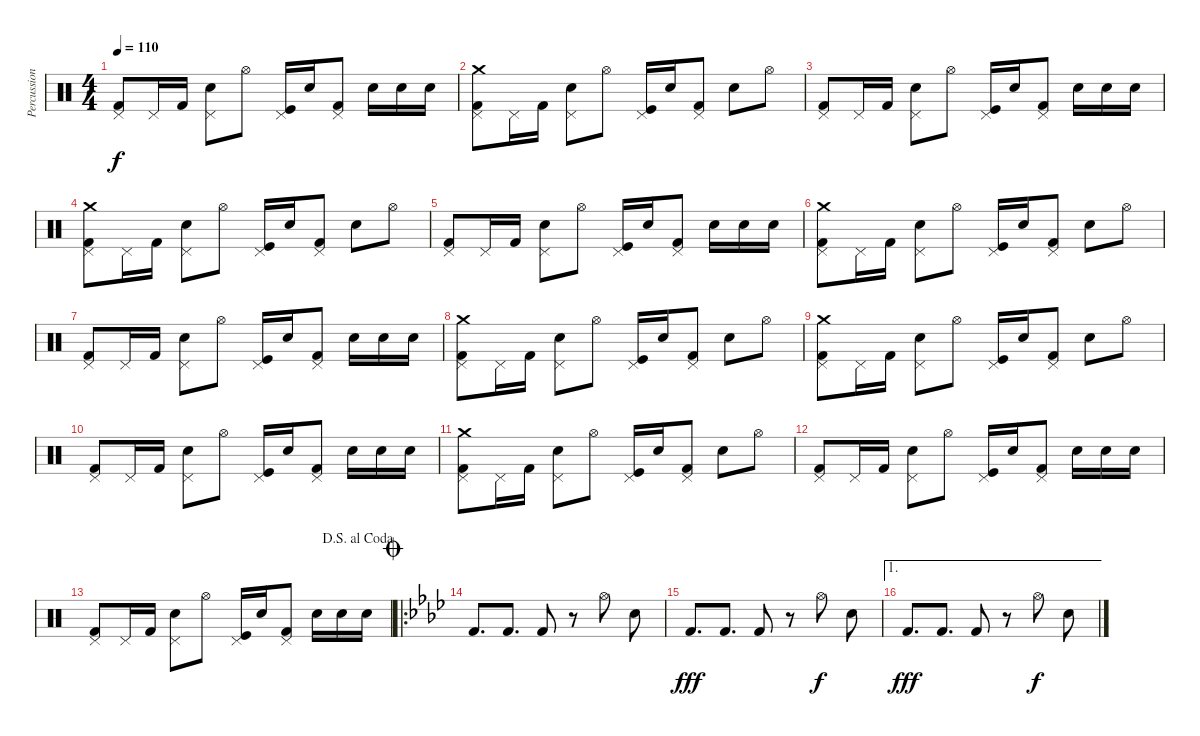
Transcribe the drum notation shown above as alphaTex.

\track ("Percussions" "Percussion") {instrument percussion}
\staff {score}
\articulation defaults
\ts (4 4)
\tempo 110
\clef neutral
\ks c
("Kick (hit) 2" "Pedal Hi-Hat (hit)").8{dy f} "Pedal Hi-Hat (hit)".16 "Kick (hit) 2".16 ("Electric Snare (hit)" "Pedal Hi-Hat (hit)").8 "Hi-Hat (open)".8 ("Kick (hit)" "Pedal Hi-Hat (hit)").16 "Electric Snare (hit)".16 ("Kick (hit) 2" "Pedal Hi-Hat (hit)").8 "Electric Snare (hit)".16 "Electric Snare (hit)".16 "Electric Snare (hit)".16 |
("Kick (hit) 2" "Pedal Hi-Hat (hit)" "Crash medium (hit)").8 "Pedal Hi-Hat (hit)".16 "Kick (hit) 2".16 ("Electric Snare (hit)" "Pedal Hi-Hat (hit)").8 "Hi-Hat (open)".8 ("Kick (hit)" "Pedal Hi-Hat (hit)").16 "Electric Snare (hit)".16 ("Kick (hit) 2" "Pedal Hi-Hat (hit)").8 "Electric Snare (hit)".8 "Hi-Hat (open)".8 |
("Kick (hit) 2" "Pedal Hi-Hat (hit)").8 "Pedal Hi-Hat (hit)".16 "Kick (hit) 2".16 ("Electric Snare (hit)" "Pedal Hi-Hat (hit)").8 "Hi-Hat (open)".8 ("Kick (hit)" "Pedal Hi-Hat (hit)").16 "Electric Snare (hit)".16 ("Kick (hit) 2" "Pedal Hi-Hat (hit)").8 "Electric Snare (hit)".16 "Electric Snare (hit)".16 "Electric Snare (hit)".16 |
("Kick (hit) 2" "Pedal Hi-Hat (hit)" "Crash medium (hit)").8 "Pedal Hi-Hat (hit)".16 "Kick (hit) 2".16 ("Electric Snare (hit)" "Pedal Hi-Hat (hit)").8 "Hi-Hat (open)".8 ("Kick (hit)" "Pedal Hi-Hat (hit)").16 "Electric Snare (hit)".16 ("Kick (hit) 2" "Pedal Hi-Hat (hit)").8 "Electric Snare (hit)".8 "Hi-Hat (open)".8 |
("Kick (hit) 2" "Pedal Hi-Hat (hit)").8 "Pedal Hi-Hat (hit)".16 "Kick (hit) 2".16 ("Electric Snare (hit)" "Pedal Hi-Hat (hit)").8 "Hi-Hat (open)".8 ("Kick (hit)" "Pedal Hi-Hat (hit)").16 "Electric Snare (hit)".16 ("Kick (hit) 2" "Pedal Hi-Hat (hit)").8 "Electric Snare (hit)".16 "Electric Snare (hit)".16 "Electric Snare (hit)".16 |
("Kick (hit) 2" "Pedal Hi-Hat (hit)" "Crash medium (hit)").8 "Pedal Hi-Hat (hit)".16 "Kick (hit) 2".16 ("Electric Snare (hit)" "Pedal Hi-Hat (hit)").8 "Hi-Hat (open)".8 ("Kick (hit)" "Pedal Hi-Hat (hit)").16 "Electric Snare (hit)".16 ("Kick (hit) 2" "Pedal Hi-Hat (hit)").8 "Electric Snare (hit)".8 "Hi-Hat (open)".8 |
("Kick (hit) 2" "Pedal Hi-Hat (hit)").8 "Pedal Hi-Hat (hit)".16 "Kick (hit) 2".16 ("Electric Snare (hit)" "Pedal Hi-Hat (hit)").8 "Hi-Hat (open)".8 ("Kick (hit)" "Pedal Hi-Hat (hit)").16 "Electric Snare (hit)".16 ("Kick (hit) 2" "Pedal Hi-Hat (hit)").8 "Electric Snare (hit)".16 "Electric Snare (hit)".16 "Electric Snare (hit)".16 |
("Kick (hit) 2" "Pedal Hi-Hat (hit)" "Crash medium (hit)").8 "Pedal Hi-Hat (hit)".16 "Kick (hit) 2".16 ("Electric Snare (hit)" "Pedal Hi-Hat (hit)").8 "Hi-Hat (open)".8 ("Kick (hit)" "Pedal Hi-Hat (hit)").16 "Electric Snare (hit)".16 ("Kick (hit) 2" "Pedal Hi-Hat (hit)").8 "Electric Snare (hit)".8 "Hi-Hat (open)".8 |
("Kick (hit) 2" "Pedal Hi-Hat (hit)" "Crash medium (hit)").8 "Pedal Hi-Hat (hit)".16 "Kick (hit) 2".16 ("Electric Snare (hit)" "Pedal Hi-Hat (hit)").8 "Hi-Hat (open)".8 ("Kick (hit)" "Pedal Hi-Hat (hit)").16 "Electric Snare (hit)".16 ("Kick (hit) 2" "Pedal Hi-Hat (hit)").8 "Electric Snare (hit)".8 "Hi-Hat (open)".8 |
("Kick (hit) 2" "Pedal Hi-Hat (hit)").8 "Pedal Hi-Hat (hit)".16 "Kick (hit) 2".16 ("Electric Snare (hit)" "Pedal Hi-Hat (hit)").8 "Hi-Hat (open)".8 ("Kick (hit)" "Pedal Hi-Hat (hit)").16 "Electric Snare (hit)".16 ("Kick (hit) 2" "Pedal Hi-Hat (hit)").8 "Electric Snare (hit)".16 "Electric Snare (hit)".16 "Electric Snare (hit)".16 |
("Kick (hit) 2" "Pedal Hi-Hat (hit)" "Crash medium (hit)").8 "Pedal Hi-Hat (hit)".16 "Kick (hit) 2".16 ("Electric Snare (hit)" "Pedal Hi-Hat (hit)").8 "Hi-Hat (open)".8 ("Kick (hit)" "Pedal Hi-Hat (hit)").16 "Electric Snare (hit)".16 ("Kick (hit) 2" "Pedal Hi-Hat (hit)").8 "Electric Snare (hit)".8 "Hi-Hat (open)".8 |
("Kick (hit) 2" "Pedal Hi-Hat (hit)").8 "Pedal Hi-Hat (hit)".16 "Kick (hit) 2".16 ("Electric Snare (hit)" "Pedal Hi-Hat (hit)").8 "Hi-Hat (open)".8 ("Kick (hit)" "Pedal Hi-Hat (hit)").16 "Electric Snare (hit)".16 ("Kick (hit) 2" "Pedal Hi-Hat (hit)").8 "Electric Snare (hit)".16 "Electric Snare (hit)".16 "Electric Snare (hit)".16 |
\jump dalsegnoalcoda
("Kick (hit) 2" "Pedal Hi-Hat (hit)").8 "Pedal Hi-Hat (hit)".16 "Kick (hit) 2".16 ("Electric Snare (hit)" "Pedal Hi-Hat (hit)").8 "Hi-Hat (open)".8 ("Kick (hit)" "Pedal Hi-Hat (hit)").16 "Electric Snare (hit)".16 ("Kick (hit) 2" "Pedal Hi-Hat (hit)").8 "Electric Snare (hit)".16 "Electric Snare (hit)".16 "Electric Snare (hit)".16 |
\ro
\jump coda
\ks ab "Kick (hit) 2".8{d} "Kick (hit) 2".8{d} "Kick (hit) 2".8
r.8 "Hi-Hat (open)".8 "Electric Snare (hit)".8 |
"Kick (hit) 2".8{d dy fff} "Kick (hit) 2".8{d} "Kick (hit) 2".8 r.8 "Hi-Hat (open)".8{dy f} "Electric Snare (hit)".8 |
\ae 1 "Kick (hit) 2".8{d dy fff} "Kick (hit) 2".8{d} "Kick (hit) 2".8
r.8 "Hi-Hat (open)".8{dy f} "Electric Snare (hit)".8
